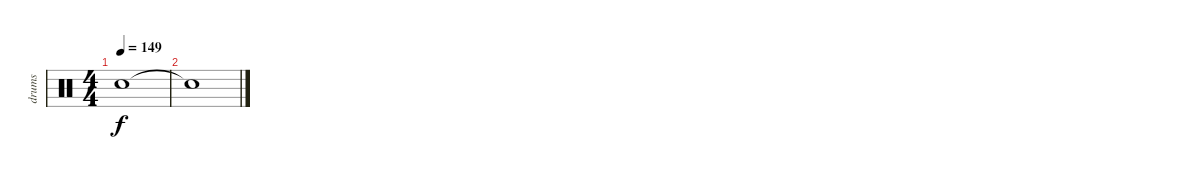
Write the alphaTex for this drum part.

\track ("drums" "drums") {instrument percussion}
\staff {score}
\articulation defaults
\ts (4 4)
\tempo 149
\clef neutral
\ks c "Snare (hit)"{t}.1{dy f}
|
"Snare (hit)"{t}.1
